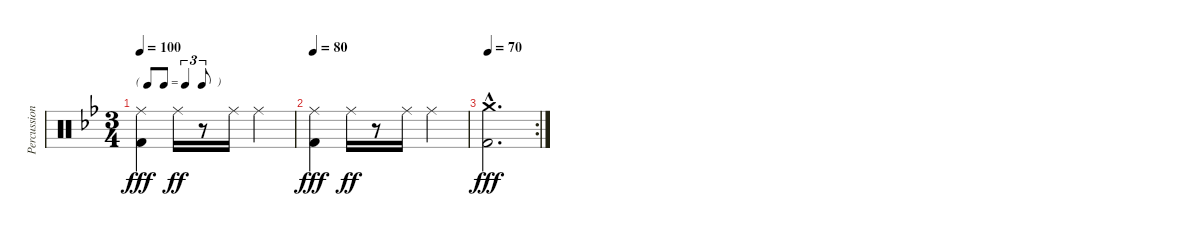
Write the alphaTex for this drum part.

\track ("Percussion" "Percussion") {instrument percussion}
\staff {score}
\articulation defaults
\ts (3 4)
\tf triplet8th
\tempo 100
\clef neutral
\ks bb
("Ride (middle)" "Kick (hit) 2").4{dy fff} "Ride (middle)".16{dy ff} r.8 "Ride (middle)".16 "Ride (middle)".4 |
\tempo 80
("Ride (middle)" "Kick (hit) 2").4{dy fff} "Ride (middle)".16{dy ff} r.8 "Ride (middle)".16 "Ride (middle)".4 |
\rc 2
\tempo 70
("Crash medium (hit)"{hac} "Kick (hit) 2"{hac}).2{d dy fff}
